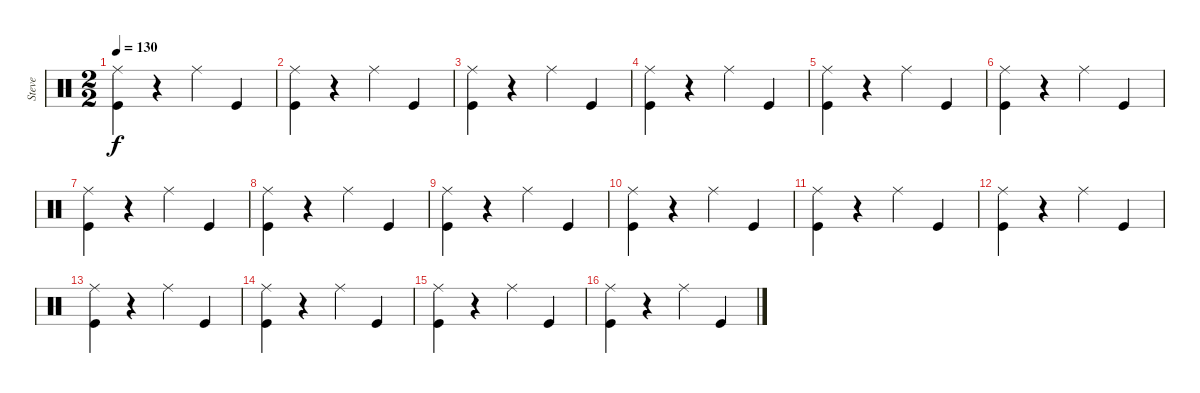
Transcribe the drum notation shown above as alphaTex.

\track ("Steve" "Steve") {instrument percussion}
\staff {score}
\articulation defaults
\ts (2 2)
\tempo 130
\clef neutral
\ks c
("Ride (middle)" "Kick (hit)").4{dy f} r.4 "Ride (middle)".4 "Kick (hit)".4 |
("Ride (middle)" "Kick (hit)").4 r.4 "Ride (middle)".4 "Kick (hit)".4 |
("Ride (middle)" "Kick (hit)").4 r.4 "Ride (middle)".4 "Kick (hit)".4 |
("Ride (middle)" "Kick (hit)").4 r.4 "Ride (middle)".4 "Kick (hit)".4 |
("Ride (middle)" "Kick (hit)").4 r.4 "Ride (middle)".4 "Kick (hit)".4 |
("Ride (middle)" "Kick (hit)").4 r.4 "Ride (middle)".4 "Kick (hit)".4 |
("Ride (middle)" "Kick (hit)").4 r.4 "Ride (middle)".4 "Kick (hit)".4 |
("Ride (middle)" "Kick (hit)").4 r.4 "Ride (middle)".4 "Kick (hit)".4 |
("Ride (middle)" "Kick (hit)").4 r.4 "Ride (middle)".4 "Kick (hit)".4 |
("Ride (middle)" "Kick (hit)").4 r.4 "Ride (middle)".4 "Kick (hit)".4 |
("Ride (middle)" "Kick (hit)").4 r.4 "Ride (middle)".4 "Kick (hit)".4 |
("Ride (middle)" "Kick (hit)").4 r.4 "Ride (middle)".4 "Kick (hit)".4 |
("Ride (middle)" "Kick (hit)").4 r.4 "Ride (middle)".4 "Kick (hit)".4 |
("Ride (middle)" "Kick (hit)").4 r.4 "Ride (middle)".4 "Kick (hit)".4 |
("Ride (middle)" "Kick (hit)").4 r.4 "Ride (middle)".4 "Kick (hit)".4 |
("Ride (middle)" "Kick (hit)").4 r.4 "Ride (middle)".4 "Kick (hit)".4
